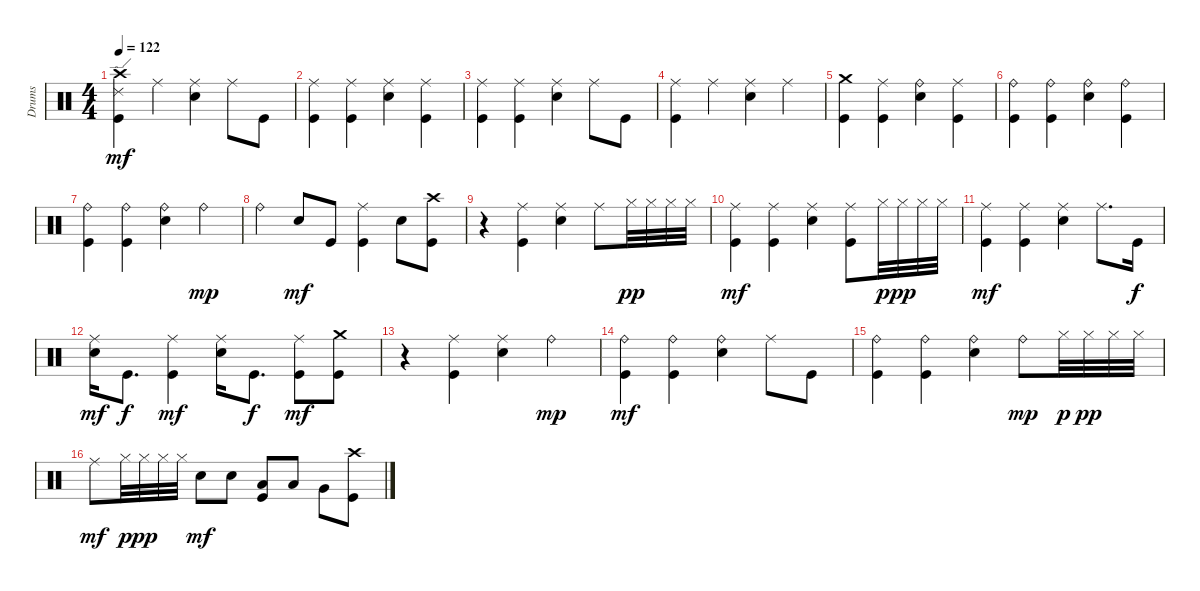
\track ("Drums" "Drums") {instrument percussion}
\staff {score}
\articulation defaults
\ts (4 4)
\tempo 122
\clef neutral
\ks c
("Crash high (hit)" "Ride (edge) 2" "Kick (hit)").4{dy mf} "Ride (middle)".4 ("Ride (middle)" "Snare (hit) 2").4 "Ride (middle)".8 "Kick (hit)".8 |
("Ride (middle)" "Kick (hit)").4 ("Ride (middle)" "Kick (hit)").4 ("Ride (middle)" "Snare (hit) 2").4 ("Ride (middle)" "Kick (hit)").4 |
("Ride (middle)" "Kick (hit)").4 ("Ride (middle)" "Kick (hit)").4 ("Ride (middle)" "Snare (hit) 2").4 "Ride (middle)".8 "Kick (hit)".8 |
("Ride (middle)" "Kick (hit)").4 "Ride (middle)".4 ("Ride (middle)" "Snare (hit) 2").4 "Ride (middle)".4 |
("Crash medium (hit)" "Kick (hit)").4 ("Ride (middle)" "Kick (hit)").4 ("Ride (bell)" "Snare (hit) 2").4 ("Ride (middle)" "Kick (hit)").4 |
("Ride (bell)" "Kick (hit)").4 ("Ride (bell)" "Kick (hit)").4 ("Ride (bell)" "Snare (hit) 2").4 ("Ride (bell)" "Kick (hit)").4 |
("Ride (bell)" "Kick (hit)").4 ("Ride (bell)" "Kick (hit)").4 ("Ride (bell)" "Snare (hit) 2").4 "Ride (bell)".4{dy mp} |
"Ride (bell)".4 "Snare (hit) 2".8{dy mf} "Kick (hit)".8 ("Ride (middle)" "Kick (hit)").4 "Snare (hit) 2".8 ("Crash high (hit)" "Kick (hit)").8 |
r.4 ("Ride (middle)" "Kick (hit)").4 ("Ride (middle)" "Snare (hit) 2").4 "Ride (middle)".8 "Hi-Hat (closed)".32{dy pp} "Hi-Hat (closed)".32 "Hi-Hat (closed)".32 "Hi-Hat (closed)".32 |
("Ride (middle)" "Kick (hit)").4{dy mf} ("Ride (middle)" "Kick (hit)").4 ("Ride (middle)" "Snare (hit) 2").4 ("Ride (middle)" "Kick (hit)").8 "Hi-Hat (closed)".32{dy p} "Hi-Hat (closed)".32{dy pp} "Hi-Hat (closed)".32 "Hi-Hat (closed)".32 |
("Ride (middle)" "Kick (hit)").4{dy mf} ("Ride (middle)" "Kick (hit)").4 ("Ride (middle)" "Snare (hit) 2").4 "Ride (middle)".8{d} "Kick (hit)".16{dy f} |
("Ride (middle)" "Snare (hit) 2").16{dy mf} "Kick (hit)".8{d dy f} ("Ride (middle)" "Kick (hit)").4{dy mf} ("Ride (middle)" "Snare (hit) 2").16 "Kick (hit)".8{d dy f} ("Ride (middle)" "Kick (hit)").8{dy mf} ("Crash medium (hit)" "Kick (hit)").8 |
r.4 ("Ride (middle)" "Kick (hit)").4 ("Ride (middle)" "Snare (hit) 2").4 "Ride (bell)".4{dy mp} |
("Ride (bell)" "Kick (hit)").4{dy mf} ("Ride (bell)" "Kick (hit)").4 ("Ride (bell)" "Snare (hit) 2").4 "Ride (middle)".8 "Kick (hit)".8 |
("Ride (bell)" "Kick (hit)").4 ("Ride (bell)" "Kick (hit)").4 ("Ride (bell)" "Snare (hit) 2").4 "Ride (bell)".8{dy mp} "Hi-Hat (closed)".32{dy p} "Hi-Hat (closed)".32{dy pp} "Hi-Hat (closed)".32 "Hi-Hat (closed)".32 |
"Ride (middle)".8{dy mf} "Hi-Hat (closed)".32{dy p} "Hi-Hat (closed)".32{dy pp} "Hi-Hat (closed)".32 "Hi-Hat (closed)".32 "Snare (hit) 2".8{dy mf} "Snare (hit) 2".8 ("Low Tom (hit)" "Kick (hit)").8 "Low Tom (hit)".8 "Very Low Tom (hit)".8 ("Crash high (hit)" "Kick (hit)").8
